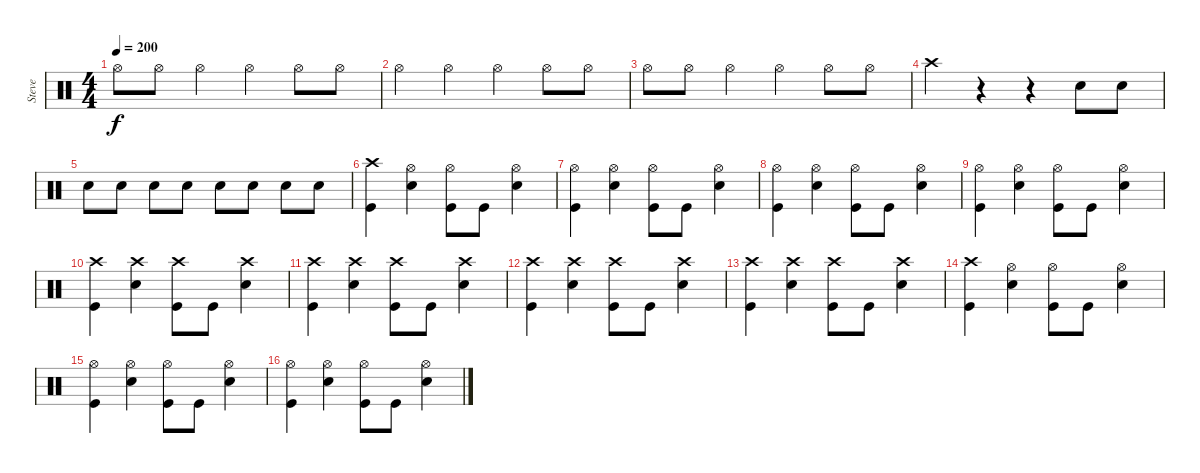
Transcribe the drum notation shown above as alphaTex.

\track ("Steve" "Steve") {instrument percussion}
\staff {score}
\articulation defaults
\ts (4 4)
\tempo 200
\clef neutral
\ks c "Hi-Hat (open)".8{dy f} "Hi-Hat (open)".8 "Hi-Hat (open)".4 "Hi-Hat (open)".4 "Hi-Hat (open)".8 "Hi-Hat (open)".8
|
"Hi-Hat (open)".4 "Hi-Hat (open)".4 "Hi-Hat (open)".4 "Hi-Hat (open)".8 "Hi-Hat (open)".8 |
"Hi-Hat (open)".8 "Hi-Hat (open)".8 "Hi-Hat (open)".4 "Hi-Hat (open)".4 "Hi-Hat (open)".8 "Hi-Hat (open)".8 |
"Crash high (hit)".4 r.4 r.4 "Snare (hit) 2".8 "Snare (hit) 2".8 |
"Snare (hit) 2".8 "Snare (hit) 2".8 "Snare (hit) 2".8 "Snare (hit) 2".8 "Snare (hit) 2".8 "Snare (hit) 2".8 "Snare (hit) 2".8 "Snare (hit) 2".8 |
("Crash high (hit)" "Kick (hit)").4{volume 16} ("Hi-Hat (open)" "Snare (hit) 2").4 ("Hi-Hat (open)" "Kick (hit)").8 "Kick (hit)".8 ("Hi-Hat (open)" "Snare (hit) 2").4 |
("Hi-Hat (open)" "Kick (hit)").4 ("Hi-Hat (open)" "Snare (hit) 2").4 ("Hi-Hat (open)" "Kick (hit)").8 "Kick (hit)".8 ("Hi-Hat (open)" "Snare (hit) 2").4 |
("Hi-Hat (open)" "Kick (hit)").4 ("Hi-Hat (open)" "Snare (hit) 2").4 ("Hi-Hat (open)" "Kick (hit)").8 "Kick (hit)".8 ("Hi-Hat (open)" "Snare (hit) 2").4 |
("Hi-Hat (open)" "Kick (hit)").4 ("Hi-Hat (open)" "Snare (hit) 2").4 ("Hi-Hat (open)" "Kick (hit)").8 "Kick (hit)".8 ("Hi-Hat (open)" "Snare (hit) 2").4 |
("Crash high (hit)" "Kick (hit)").4 ("Crash high (hit)" "Snare (hit) 2").4 ("Crash high (hit)" "Kick (hit)").8 "Kick (hit)".8 ("Crash high (hit)" "Snare (hit) 2").4 |
("Crash high (hit)" "Kick (hit)").4 ("Crash high (hit)" "Snare (hit) 2").4 ("Crash high (hit)" "Kick (hit)").8 "Kick (hit)".8 ("Crash high (hit)" "Snare (hit) 2").4 |
("Crash high (hit)" "Kick (hit)").4 ("Crash high (hit)" "Snare (hit) 2").4 ("Crash high (hit)" "Kick (hit)").8 "Kick (hit)".8 ("Crash high (hit)" "Snare (hit) 2").4 |
("Crash high (hit)" "Kick (hit)").4 ("Crash high (hit)" "Snare (hit) 2").4 ("Crash high (hit)" "Kick (hit)").8 "Kick (hit)".8 ("Crash high (hit)" "Snare (hit) 2").4 |
("Crash high (hit)" "Kick (hit)").4 ("Hi-Hat (open)" "Snare (hit) 2").4 ("Hi-Hat (open)" "Kick (hit)").8 "Kick (hit)".8 ("Hi-Hat (open)" "Snare (hit) 2").4 |
("Hi-Hat (open)" "Kick (hit)").4 ("Hi-Hat (open)" "Snare (hit) 2").4 ("Hi-Hat (open)" "Kick (hit)").8 "Kick (hit)".8 ("Hi-Hat (open)" "Snare (hit) 2").4 |
("Hi-Hat (open)" "Kick (hit)").4 ("Hi-Hat (open)" "Snare (hit) 2").4 ("Hi-Hat (open)" "Kick (hit)").8 "Kick (hit)".8 ("Hi-Hat (open)" "Snare (hit) 2").4
